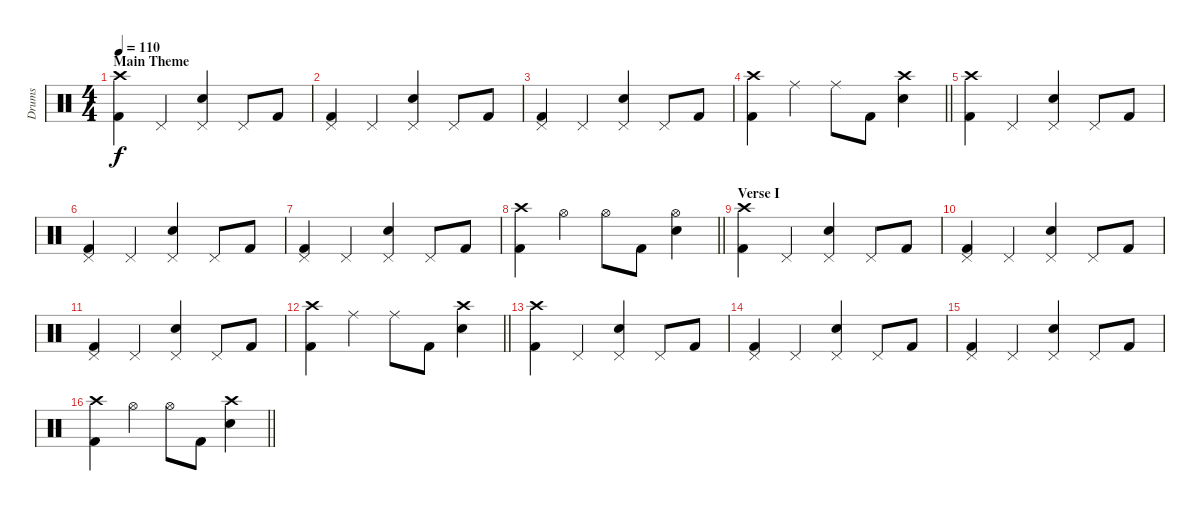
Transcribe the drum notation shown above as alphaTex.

\track ("Drums" "Drums") {instrument percussion}
\staff {score}
\articulation defaults
\ts (4 4)
\section ("" "Main Theme")
\tempo 110
\clef neutral
\ks c
("Crash high (hit)" "Kick (hit) 2").4{dy f} "Pedal Hi-Hat (hit)".4 ("Pedal Hi-Hat (hit)" "Snare (hit) 2").4 "Pedal Hi-Hat (hit)".8 "Kick (hit) 2".8 |
("Pedal Hi-Hat (hit)" "Kick (hit) 2").4 "Pedal Hi-Hat (hit)".4 ("Pedal Hi-Hat (hit)" "Snare (hit) 2").4 "Pedal Hi-Hat (hit)".8 "Kick (hit) 2".8 |
("Pedal Hi-Hat (hit)" "Kick (hit) 2").4 "Pedal Hi-Hat (hit)".4 ("Pedal Hi-Hat (hit)" "Snare (hit) 2").4 "Pedal Hi-Hat (hit)".8 "Kick (hit) 2".8 |
\barLineRight lightlight
("Crash high (hit)" "Kick (hit) 2").4 "Ride (middle)".4 "Ride (middle)".8 "Kick (hit) 2".8 ("Crash high (hit)" "Snare (hit) 2").4 |
\section ("" "")
("Crash high (hit)" "Kick (hit) 2").4 "Pedal Hi-Hat (hit)".4 ("Pedal Hi-Hat (hit)" "Snare (hit) 2").4 "Pedal Hi-Hat (hit)".8 "Kick (hit) 2".8 |
("Pedal Hi-Hat (hit)" "Kick (hit) 2").4 "Pedal Hi-Hat (hit)".4 ("Pedal Hi-Hat (hit)" "Snare (hit) 2").4 "Pedal Hi-Hat (hit)".8 "Kick (hit) 2".8 |
("Pedal Hi-Hat (hit)" "Kick (hit) 2").4 "Pedal Hi-Hat (hit)".4 ("Pedal Hi-Hat (hit)" "Snare (hit) 2").4 "Pedal Hi-Hat (hit)".8 "Kick (hit) 2".8 |
\barLineRight lightlight
("Crash high (hit)" "Kick (hit) 2").4 "Hi-Hat (open)".4 "Hi-Hat (open)".8 "Kick (hit) 2".8 ("Hi-Hat (open)" "Snare (hit) 2").4 |
\section ("" "Verse I")
("Crash high (hit)" "Kick (hit) 2").4 "Pedal Hi-Hat (hit)".4 ("Pedal Hi-Hat (hit)" "Snare (hit) 2").4 "Pedal Hi-Hat (hit)".8 "Kick (hit) 2".8 |
("Pedal Hi-Hat (hit)" "Kick (hit) 2").4 "Pedal Hi-Hat (hit)".4 ("Pedal Hi-Hat (hit)" "Snare (hit) 2").4 "Pedal Hi-Hat (hit)".8 "Kick (hit) 2".8 |
("Pedal Hi-Hat (hit)" "Kick (hit) 2").4 "Pedal Hi-Hat (hit)".4 ("Pedal Hi-Hat (hit)" "Snare (hit) 2").4 "Pedal Hi-Hat (hit)".8 "Kick (hit) 2".8 |
\barLineRight lightlight
("Crash high (hit)" "Kick (hit) 2").4 "Ride (middle)".4 "Ride (middle)".8 "Kick (hit) 2".8 ("Crash high (hit)" "Snare (hit) 2").4 |
\section ("" "")
("Crash high (hit)" "Kick (hit) 2").4 "Pedal Hi-Hat (hit)".4 ("Pedal Hi-Hat (hit)" "Snare (hit) 2").4 "Pedal Hi-Hat (hit)".8 "Kick (hit) 2".8 |
("Pedal Hi-Hat (hit)" "Kick (hit) 2").4 "Pedal Hi-Hat (hit)".4 ("Pedal Hi-Hat (hit)" "Snare (hit) 2").4 "Pedal Hi-Hat (hit)".8 "Kick (hit) 2".8 |
("Pedal Hi-Hat (hit)" "Kick (hit) 2").4 "Pedal Hi-Hat (hit)".4 ("Pedal Hi-Hat (hit)" "Snare (hit) 2").4 "Pedal Hi-Hat (hit)".8 "Kick (hit) 2".8 |
\barLineRight lightlight
("Crash high (hit)" "Kick (hit) 2").4 "Hi-Hat (open)".4 "Hi-Hat (open)".8 "Kick (hit) 2".8 ("Crash high (hit)" "Snare (hit) 2").4
